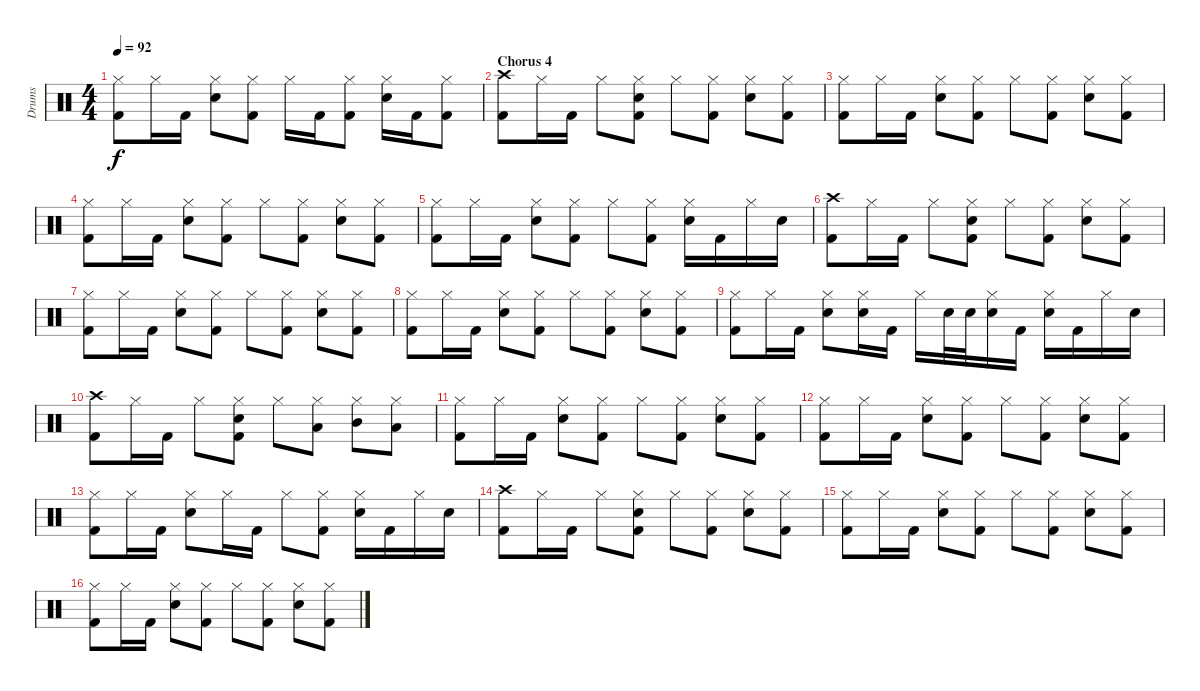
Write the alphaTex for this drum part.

\track ("Drums" "Drums") {instrument percussion}
\staff {score}
\articulation defaults
\ts (4 4)
\tempo 92
\clef neutral
\ks c
("Hi-Hat (closed)" "Kick (hit) 2").8{dy f} "Hi-Hat (closed)".16 "Kick (hit) 2".16 ("Hi-Hat (closed)" "Electric Snare (hit)").8 ("Hi-Hat (closed)" "Kick (hit) 2").8 "Hi-Hat (closed)".16 "Kick (hit) 2".16 ("Hi-Hat (closed)" "Kick (hit) 2").8 ("Hi-Hat (closed)" "Electric Snare (hit)").16 "Kick (hit) 2".16 ("Hi-Hat (closed)" "Kick (hit) 2").8 |
\section ("" "Chorus 4")
("Crash high (hit)" "Kick (hit) 2").8 "Hi-Hat (closed)".16 "Kick (hit) 2".16 "Hi-Hat (closed)".8 ("Hi-Hat (closed)" "Electric Snare (hit)" "Kick (hit) 2").8 "Hi-Hat (closed)".8 ("Hi-Hat (closed)" "Kick (hit) 2").8 ("Hi-Hat (closed)" "Electric Snare (hit)").8 ("Hi-Hat (closed)" "Kick (hit) 2").8 |
("Hi-Hat (closed)" "Kick (hit) 2").8 "Hi-Hat (closed)".16 "Kick (hit) 2".16 ("Hi-Hat (closed)" "Electric Snare (hit)").8 ("Hi-Hat (closed)" "Kick (hit) 2").8 "Hi-Hat (closed)".8 ("Hi-Hat (closed)" "Kick (hit) 2").8 ("Hi-Hat (closed)" "Electric Snare (hit)").8 ("Hi-Hat (closed)" "Kick (hit) 2").8 |
("Hi-Hat (closed)" "Kick (hit) 2").8 "Hi-Hat (closed)".16 "Kick (hit) 2".16 ("Hi-Hat (closed)" "Electric Snare (hit)").8 ("Hi-Hat (closed)" "Kick (hit) 2").8 "Hi-Hat (closed)".8 ("Hi-Hat (closed)" "Kick (hit) 2").8 ("Hi-Hat (closed)" "Electric Snare (hit)").8 ("Hi-Hat (closed)" "Kick (hit) 2").8 |
("Hi-Hat (closed)" "Kick (hit) 2").8 "Hi-Hat (closed)".16 "Kick (hit) 2".16 ("Hi-Hat (closed)" "Electric Snare (hit)").8 ("Hi-Hat (closed)" "Kick (hit) 2").8 "Hi-Hat (closed)".8 ("Hi-Hat (closed)" "Kick (hit) 2").8 ("Hi-Hat (closed)" "Electric Snare (hit)").16 "Kick (hit) 2".16 "Hi-Hat (closed)".16 "Electric Snare (hit)".16 |
("Crash high (hit)" "Kick (hit) 2").8 "Hi-Hat (closed)".16 "Kick (hit) 2".16 "Hi-Hat (closed)".8 ("Hi-Hat (closed)" "Electric Snare (hit)" "Kick (hit) 2").8 "Hi-Hat (closed)".8 ("Hi-Hat (closed)" "Kick (hit) 2").8 ("Hi-Hat (closed)" "Electric Snare (hit)").8 ("Hi-Hat (closed)" "Kick (hit) 2").8 |
("Hi-Hat (closed)" "Kick (hit) 2").8 "Hi-Hat (closed)".16 "Kick (hit) 2".16 ("Hi-Hat (closed)" "Electric Snare (hit)").8 ("Hi-Hat (closed)" "Kick (hit) 2").8 "Hi-Hat (closed)".8 ("Hi-Hat (closed)" "Kick (hit) 2").8 ("Hi-Hat (closed)" "Electric Snare (hit)").8 ("Hi-Hat (closed)" "Kick (hit) 2").8 |
("Hi-Hat (closed)" "Kick (hit) 2").8 "Hi-Hat (closed)".16 "Kick (hit) 2".16 ("Hi-Hat (closed)" "Electric Snare (hit)").8 ("Hi-Hat (closed)" "Kick (hit) 2").8 "Hi-Hat (closed)".8 ("Hi-Hat (closed)" "Kick (hit) 2").8 ("Hi-Hat (closed)" "Electric Snare (hit)").8 ("Hi-Hat (closed)" "Kick (hit) 2").8 |
("Hi-Hat (closed)" "Kick (hit) 2").8 "Hi-Hat (closed)".16 "Kick (hit) 2".16 ("Hi-Hat (closed)" "Electric Snare (hit)").8 ("Hi-Hat (closed)" "Electric Snare (hit)").16 "Kick (hit) 2".16 "Hi-Hat (closed)".16 "Electric Snare (hit)".32 "Electric Snare (hit)".32 ("Hi-Hat (closed)" "Electric Snare (hit)").16 "Kick (hit) 2".16 ("Hi-Hat (closed)" "Electric Snare (hit)").16 "Kick (hit) 2".16 "Hi-Hat (closed)".16 "Electric Snare (hit)".16 |
("Crash high (hit)" "Kick (hit) 2").8 "Hi-Hat (closed)".16 "Kick (hit) 2".16 "Hi-Hat (closed)".8 ("Hi-Hat (closed)" "Electric Snare (hit)" "Kick (hit) 2").8 "Hi-Hat (closed)".8 ("Hi-Hat (closed)" "Low Floor Tom (hit)").8 ("Hi-Hat (closed)" "Mid Tom (hit)").8 ("Hi-Hat (closed)" "Low Floor Tom (hit)").8 |
("Hi-Hat (closed)" "Kick (hit) 2").8 "Hi-Hat (closed)".16 "Kick (hit) 2".16 ("Hi-Hat (closed)" "Electric Snare (hit)").8 ("Hi-Hat (closed)" "Kick (hit) 2").8 "Hi-Hat (closed)".8 ("Hi-Hat (closed)" "Kick (hit) 2").8 ("Hi-Hat (closed)" "Electric Snare (hit)").8 ("Hi-Hat (closed)" "Kick (hit) 2").8 |
("Hi-Hat (closed)" "Kick (hit) 2").8 "Hi-Hat (closed)".16 "Kick (hit) 2".16 ("Hi-Hat (closed)" "Electric Snare (hit)").8 ("Hi-Hat (closed)" "Kick (hit) 2").8 "Hi-Hat (closed)".8 ("Hi-Hat (closed)" "Kick (hit) 2").8 ("Hi-Hat (closed)" "Electric Snare (hit)").8 ("Hi-Hat (closed)" "Kick (hit) 2").8 |
("Hi-Hat (closed)" "Kick (hit) 2").8 "Hi-Hat (closed)".16 "Kick (hit) 2".16 ("Hi-Hat (closed)" "Electric Snare (hit)").8 "Hi-Hat (closed)".16 "Kick (hit) 2".16 "Hi-Hat (closed)".8 ("Hi-Hat (closed)" "Kick (hit) 2").8 ("Hi-Hat (closed)" "Electric Snare (hit)").16 "Kick (hit) 2".16 "Hi-Hat (closed)".16 "Electric Snare (hit)".16 |
("Crash high (hit)" "Kick (hit) 2").8 "Hi-Hat (closed)".16 "Kick (hit) 2".16 "Hi-Hat (closed)".8 ("Hi-Hat (closed)" "Electric Snare (hit)" "Kick (hit) 2").8 "Hi-Hat (closed)".8 ("Hi-Hat (closed)" "Kick (hit) 2").8 ("Hi-Hat (closed)" "Electric Snare (hit)").8 ("Hi-Hat (closed)" "Kick (hit) 2").8 |
("Hi-Hat (closed)" "Kick (hit) 2").8 "Hi-Hat (closed)".16 "Kick (hit) 2".16 ("Hi-Hat (closed)" "Electric Snare (hit)").8 ("Hi-Hat (closed)" "Kick (hit) 2").8 "Hi-Hat (closed)".8 ("Hi-Hat (closed)" "Kick (hit) 2").8 ("Hi-Hat (closed)" "Electric Snare (hit)").8 ("Hi-Hat (closed)" "Kick (hit) 2").8 |
("Hi-Hat (closed)" "Kick (hit) 2").8 "Hi-Hat (closed)".16 "Kick (hit) 2".16 ("Hi-Hat (closed)" "Electric Snare (hit)").8 ("Hi-Hat (closed)" "Kick (hit) 2").8 "Hi-Hat (closed)".8 ("Hi-Hat (closed)" "Kick (hit) 2").8 ("Hi-Hat (closed)" "Electric Snare (hit)").8 ("Hi-Hat (closed)" "Kick (hit) 2").8
